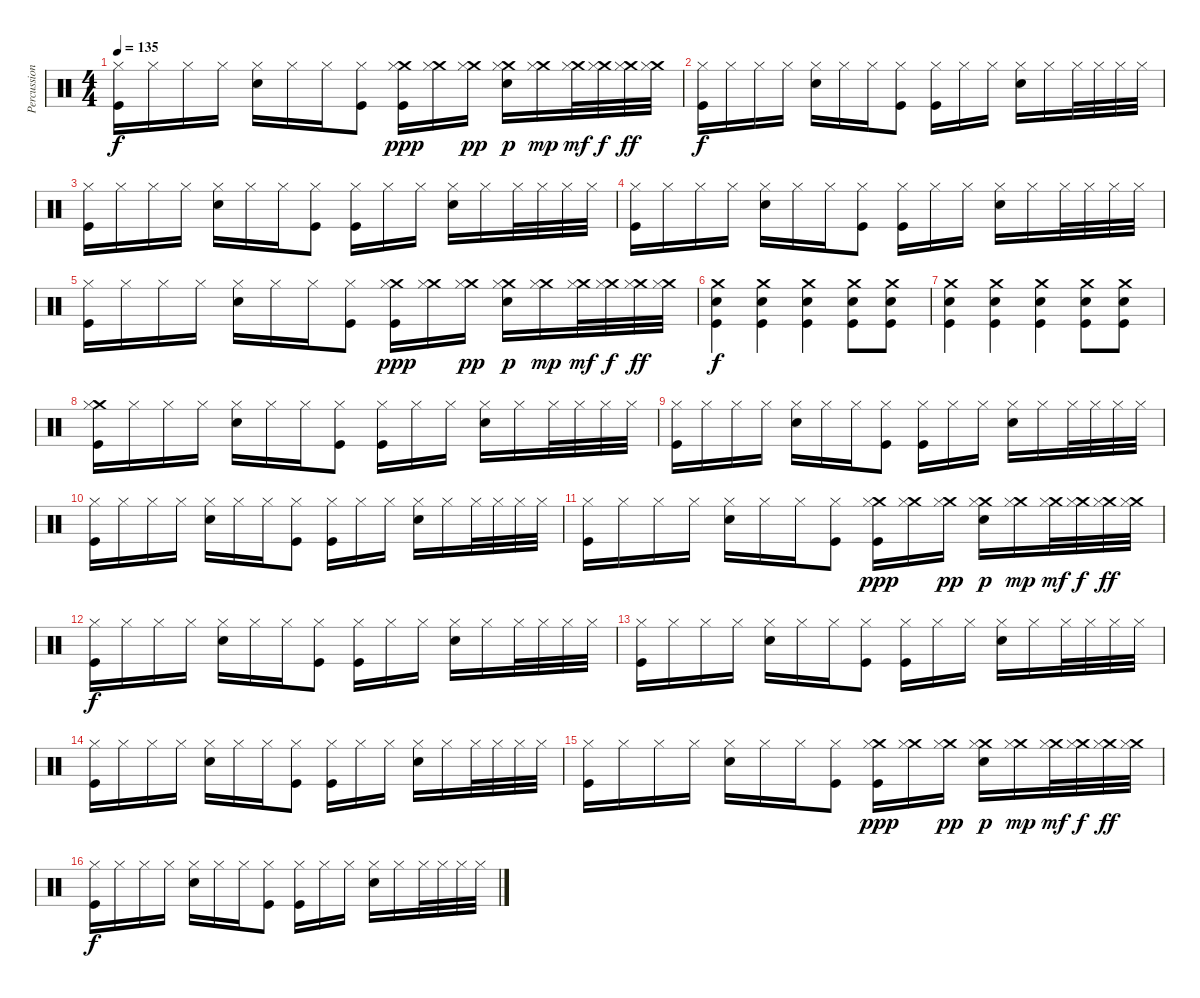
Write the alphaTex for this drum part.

\track ("Percussion" "Percussion") {instrument percussion}
\staff {score}
\articulation defaults
\ts (4 4)
\tempo 135
\clef neutral
\ks c
("Hi-Hat (closed)" "Kick (hit)").16{dy f} "Hi-Hat (closed)".16 "Hi-Hat (closed)".16 "Hi-Hat (closed)".16 ("Hi-Hat (closed)" "Snare (hit) 2").16 "Hi-Hat (closed)".16 "Hi-Hat (closed)".16 ("Hi-Hat (closed)" "Kick (hit)").8 ("Crash medium (hit)" "Hi-Hat (closed)" "Kick (hit)").16{dy ppp} ("Crash medium (hit)" "Hi-Hat (closed)").16 ("Crash medium (hit)" "Hi-Hat (closed)").16{dy pp} ("Crash medium (hit)" "Hi-Hat (closed)" "Snare (hit) 2").16{dy p} ("Crash medium (hit)" "Hi-Hat (closed)").16{dy mp} ("Crash medium (hit)" "Hi-Hat (closed)").32{dy mf} ("Crash medium (hit)" "Hi-Hat (closed)").32{dy f} ("Crash medium (hit)" "Hi-Hat (closed)").32{dy ff} ("Crash medium (hit)" "Hi-Hat (closed)").32 |
("Hi-Hat (closed)" "Kick (hit)").16{dy f} "Hi-Hat (closed)".16 "Hi-Hat (closed)".16 "Hi-Hat (closed)".16 ("Hi-Hat (closed)" "Snare (hit) 2").16 "Hi-Hat (closed)".16 "Hi-Hat (closed)".16 ("Hi-Hat (closed)" "Kick (hit)").8 ("Hi-Hat (closed)" "Kick (hit)").16 "Hi-Hat (closed)".16 "Hi-Hat (closed)".16 ("Hi-Hat (closed)" "Snare (hit) 2").16 "Hi-Hat (closed)".16 "Hi-Hat (closed)".32 "Hi-Hat (closed)".32 "Hi-Hat (closed)".32 "Hi-Hat (closed)".32 |
("Hi-Hat (closed)" "Kick (hit)").16 "Hi-Hat (closed)".16 "Hi-Hat (closed)".16 "Hi-Hat (closed)".16 ("Hi-Hat (closed)" "Snare (hit) 2").16 "Hi-Hat (closed)".16 "Hi-Hat (closed)".16 ("Hi-Hat (closed)" "Kick (hit)").8 ("Hi-Hat (closed)" "Kick (hit)").16 "Hi-Hat (closed)".16 "Hi-Hat (closed)".16 ("Hi-Hat (closed)" "Snare (hit) 2").16 "Hi-Hat (closed)".16 "Hi-Hat (closed)".32 "Hi-Hat (closed)".32 "Hi-Hat (closed)".32 "Hi-Hat (closed)".32 |
("Hi-Hat (closed)" "Kick (hit)").16 "Hi-Hat (closed)".16 "Hi-Hat (closed)".16 "Hi-Hat (closed)".16 ("Hi-Hat (closed)" "Snare (hit) 2").16 "Hi-Hat (closed)".16 "Hi-Hat (closed)".16 ("Hi-Hat (closed)" "Kick (hit)").8 ("Hi-Hat (closed)" "Kick (hit)").16 "Hi-Hat (closed)".16 "Hi-Hat (closed)".16 ("Hi-Hat (closed)" "Snare (hit) 2").16 "Hi-Hat (closed)".16 "Hi-Hat (closed)".32 "Hi-Hat (closed)".32 "Hi-Hat (closed)".32 "Hi-Hat (closed)".32 |
("Hi-Hat (closed)" "Kick (hit)").16 "Hi-Hat (closed)".16 "Hi-Hat (closed)".16 "Hi-Hat (closed)".16 ("Hi-Hat (closed)" "Snare (hit) 2").16 "Hi-Hat (closed)".16 "Hi-Hat (closed)".16 ("Hi-Hat (closed)" "Kick (hit)").8 ("Crash medium (hit)" "Hi-Hat (closed)" "Kick (hit)").16{dy ppp} ("Crash medium (hit)" "Hi-Hat (closed)").16 ("Crash medium (hit)" "Hi-Hat (closed)").16{dy pp} ("Crash medium (hit)" "Hi-Hat (closed)" "Snare (hit) 2").16{dy p} ("Crash medium (hit)" "Hi-Hat (closed)").16{dy mp} ("Crash medium (hit)" "Hi-Hat (closed)").32{dy mf} ("Crash medium (hit)" "Hi-Hat (closed)").32{dy f} ("Crash medium (hit)" "Hi-Hat (closed)").32{dy ff} ("Crash medium (hit)" "Hi-Hat (closed)").32 |
("Crash medium (hit)" "Snare (hit) 2" "Kick (hit)").4{dy f} ("Crash medium (hit)" "Snare (hit) 2" "Kick (hit)").4 ("Crash medium (hit)" "Snare (hit) 2" "Kick (hit)").4 ("Crash medium (hit)" "Snare (hit) 2" "Kick (hit)").8 ("Crash medium (hit)" "Snare (hit) 2" "Kick (hit)").8 |
("Crash medium (hit)" "Snare (hit) 2" "Kick (hit)").4 ("Crash medium (hit)" "Snare (hit) 2" "Kick (hit)").4 ("Crash medium (hit)" "Snare (hit) 2" "Kick (hit)").4 ("Crash medium (hit)" "Snare (hit) 2" "Kick (hit)").8 ("Crash medium (hit)" "Snare (hit) 2" "Kick (hit)").8 |
("Crash medium (hit)" "Hi-Hat (closed)" "Kick (hit)").16 "Hi-Hat (closed)".16 "Hi-Hat (closed)".16 "Hi-Hat (closed)".16 ("Hi-Hat (closed)" "Snare (hit) 2").16 "Hi-Hat (closed)".16 "Hi-Hat (closed)".16 ("Hi-Hat (closed)" "Kick (hit)").8 ("Hi-Hat (closed)" "Kick (hit)").16 "Hi-Hat (closed)".16 "Hi-Hat (closed)".16 ("Hi-Hat (closed)" "Snare (hit) 2").16 "Hi-Hat (closed)".16 "Hi-Hat (closed)".32 "Hi-Hat (closed)".32 "Hi-Hat (closed)".32 "Hi-Hat (closed)".32 |
("Hi-Hat (closed)" "Kick (hit)").16 "Hi-Hat (closed)".16 "Hi-Hat (closed)".16 "Hi-Hat (closed)".16 ("Hi-Hat (closed)" "Snare (hit) 2").16 "Hi-Hat (closed)".16 "Hi-Hat (closed)".16 ("Hi-Hat (closed)" "Kick (hit)").8 ("Hi-Hat (closed)" "Kick (hit)").16 "Hi-Hat (closed)".16 "Hi-Hat (closed)".16 ("Hi-Hat (closed)" "Snare (hit) 2").16 "Hi-Hat (closed)".16 "Hi-Hat (closed)".32 "Hi-Hat (closed)".32 "Hi-Hat (closed)".32 "Hi-Hat (closed)".32 |
("Hi-Hat (closed)" "Kick (hit)").16 "Hi-Hat (closed)".16 "Hi-Hat (closed)".16 "Hi-Hat (closed)".16 ("Hi-Hat (closed)" "Snare (hit) 2").16 "Hi-Hat (closed)".16 "Hi-Hat (closed)".16 ("Hi-Hat (closed)" "Kick (hit)").8 ("Hi-Hat (closed)" "Kick (hit)").16 "Hi-Hat (closed)".16 "Hi-Hat (closed)".16 ("Hi-Hat (closed)" "Snare (hit) 2").16 "Hi-Hat (closed)".16 "Hi-Hat (closed)".32 "Hi-Hat (closed)".32 "Hi-Hat (closed)".32 "Hi-Hat (closed)".32 |
("Hi-Hat (closed)" "Kick (hit)").16 "Hi-Hat (closed)".16 "Hi-Hat (closed)".16 "Hi-Hat (closed)".16 ("Hi-Hat (closed)" "Snare (hit) 2").16 "Hi-Hat (closed)".16 "Hi-Hat (closed)".16 ("Hi-Hat (closed)" "Kick (hit)").8 ("Crash medium (hit)" "Hi-Hat (closed)" "Kick (hit)").16{dy ppp} ("Crash medium (hit)" "Hi-Hat (closed)").16 ("Crash medium (hit)" "Hi-Hat (closed)").16{dy pp} ("Crash medium (hit)" "Hi-Hat (closed)" "Snare (hit) 2").16{dy p} ("Crash medium (hit)" "Hi-Hat (closed)").16{dy mp} ("Crash medium (hit)" "Hi-Hat (closed)").32{dy mf} ("Crash medium (hit)" "Hi-Hat (closed)").32{dy f} ("Crash medium (hit)" "Hi-Hat (closed)").32{dy ff} ("Crash medium (hit)" "Hi-Hat (closed)").32 |
("Hi-Hat (closed)" "Kick (hit)").16{dy f} "Hi-Hat (closed)".16 "Hi-Hat (closed)".16 "Hi-Hat (closed)".16 ("Hi-Hat (closed)" "Snare (hit) 2").16 "Hi-Hat (closed)".16 "Hi-Hat (closed)".16 ("Hi-Hat (closed)" "Kick (hit)").8 ("Hi-Hat (closed)" "Kick (hit)").16 "Hi-Hat (closed)".16 "Hi-Hat (closed)".16 ("Hi-Hat (closed)" "Snare (hit) 2").16 "Hi-Hat (closed)".16 "Hi-Hat (closed)".32 "Hi-Hat (closed)".32 "Hi-Hat (closed)".32 "Hi-Hat (closed)".32 |
("Hi-Hat (closed)" "Kick (hit)").16 "Hi-Hat (closed)".16 "Hi-Hat (closed)".16 "Hi-Hat (closed)".16 ("Hi-Hat (closed)" "Snare (hit) 2").16 "Hi-Hat (closed)".16 "Hi-Hat (closed)".16 ("Hi-Hat (closed)" "Kick (hit)").8 ("Hi-Hat (closed)" "Kick (hit)").16 "Hi-Hat (closed)".16 "Hi-Hat (closed)".16 ("Hi-Hat (closed)" "Snare (hit) 2").16 "Hi-Hat (closed)".16 "Hi-Hat (closed)".32 "Hi-Hat (closed)".32 "Hi-Hat (closed)".32 "Hi-Hat (closed)".32 |
("Hi-Hat (closed)" "Kick (hit)").16 "Hi-Hat (closed)".16 "Hi-Hat (closed)".16 "Hi-Hat (closed)".16 ("Hi-Hat (closed)" "Snare (hit) 2").16 "Hi-Hat (closed)".16 "Hi-Hat (closed)".16 ("Hi-Hat (closed)" "Kick (hit)").8 ("Hi-Hat (closed)" "Kick (hit)").16 "Hi-Hat (closed)".16 "Hi-Hat (closed)".16 ("Hi-Hat (closed)" "Snare (hit) 2").16 "Hi-Hat (closed)".16 "Hi-Hat (closed)".32 "Hi-Hat (closed)".32 "Hi-Hat (closed)".32 "Hi-Hat (closed)".32 |
("Hi-Hat (closed)" "Kick (hit)").16 "Hi-Hat (closed)".16 "Hi-Hat (closed)".16 "Hi-Hat (closed)".16 ("Hi-Hat (closed)" "Snare (hit) 2").16 "Hi-Hat (closed)".16 "Hi-Hat (closed)".16 ("Hi-Hat (closed)" "Kick (hit)").8 ("Crash medium (hit)" "Hi-Hat (closed)" "Kick (hit)").16{dy ppp} ("Crash medium (hit)" "Hi-Hat (closed)").16 ("Crash medium (hit)" "Hi-Hat (closed)").16{dy pp} ("Crash medium (hit)" "Hi-Hat (closed)" "Snare (hit) 2").16{dy p} ("Crash medium (hit)" "Hi-Hat (closed)").16{dy mp} ("Crash medium (hit)" "Hi-Hat (closed)").32{dy mf} ("Crash medium (hit)" "Hi-Hat (closed)").32{dy f} ("Crash medium (hit)" "Hi-Hat (closed)").32{dy ff} ("Crash medium (hit)" "Hi-Hat (closed)").32 |
("Hi-Hat (closed)" "Kick (hit)").16{dy f} "Hi-Hat (closed)".16 "Hi-Hat (closed)".16 "Hi-Hat (closed)".16 ("Hi-Hat (closed)" "Snare (hit) 2").16 "Hi-Hat (closed)".16 "Hi-Hat (closed)".16 ("Hi-Hat (closed)" "Kick (hit)").8 ("Hi-Hat (closed)" "Kick (hit)").16 "Hi-Hat (closed)".16 "Hi-Hat (closed)".16 ("Hi-Hat (closed)" "Snare (hit) 2").16 "Hi-Hat (closed)".16 "Hi-Hat (closed)".32 "Hi-Hat (closed)".32 "Hi-Hat (closed)".32 "Hi-Hat (closed)".32
